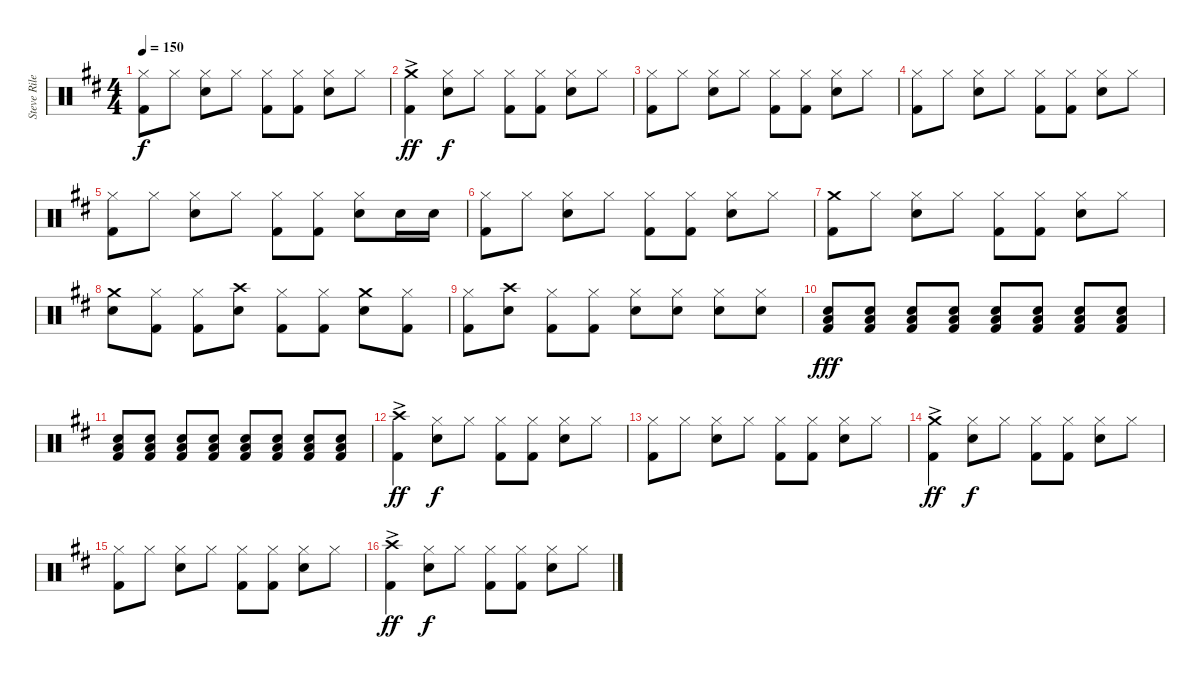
\track ("Steve Riley" "Steve Rile") {instrument percussion}
\staff {score}
\articulation defaults
\ts (4 4)
\tempo 150
\clef neutral
\ks d
("Hi-Hat (closed)" "Kick (hit) 2").8{dy f} "Hi-Hat (closed)".8 ("Hi-Hat (closed)" "Electric Snare (hit)").8 "Hi-Hat (closed)".8 ("Hi-Hat (closed)" "Kick (hit) 2").8 ("Hi-Hat (closed)" "Kick (hit) 2").8 ("Hi-Hat (closed)" "Electric Snare (hit)").8 "Hi-Hat (closed)".8 |
("Crash medium (hit)"{ac} "Kick (hit) 2").4{dy ff} ("Hi-Hat (closed)" "Electric Snare (hit)").8{dy f} "Hi-Hat (closed)".8 ("Hi-Hat (closed)" "Kick (hit) 2").8 ("Hi-Hat (closed)" "Kick (hit) 2").8 ("Hi-Hat (closed)" "Electric Snare (hit)").8 "Hi-Hat (closed)".8 |
("Hi-Hat (closed)" "Kick (hit) 2").8 "Hi-Hat (closed)".8 ("Hi-Hat (closed)" "Electric Snare (hit)").8 "Hi-Hat (closed)".8 ("Hi-Hat (closed)" "Kick (hit) 2").8 ("Hi-Hat (closed)" "Kick (hit) 2").8 ("Hi-Hat (closed)" "Electric Snare (hit)").8 "Hi-Hat (closed)".8 |
("Hi-Hat (closed)" "Kick (hit) 2").8 "Hi-Hat (closed)".8 ("Hi-Hat (closed)" "Electric Snare (hit)").8 "Hi-Hat (closed)".8 ("Hi-Hat (closed)" "Kick (hit) 2").8 ("Hi-Hat (closed)" "Kick (hit) 2").8 ("Hi-Hat (closed)" "Electric Snare (hit)").8 "Hi-Hat (closed)".8 |
("Hi-Hat (closed)" "Kick (hit) 2").8 "Hi-Hat (closed)".8 ("Hi-Hat (closed)" "Electric Snare (hit)").8 "Hi-Hat (closed)".8 ("Hi-Hat (closed)" "Kick (hit) 2").8 ("Hi-Hat (closed)" "Kick (hit) 2").8 ("Hi-Hat (closed)" "Electric Snare (hit)").8 "Electric Snare (hit)".16 "Electric Snare (hit)".16 |
("Hi-Hat (closed)" "Kick (hit) 2").8 "Hi-Hat (closed)".8 ("Hi-Hat (closed)" "Electric Snare (hit)").8 "Hi-Hat (closed)".8 ("Hi-Hat (closed)" "Kick (hit) 2").8 ("Hi-Hat (closed)" "Kick (hit) 2").8 ("Hi-Hat (closed)" "Electric Snare (hit)").8 "Hi-Hat (closed)".8 |
("Crash medium (hit)" "Kick (hit) 2").8 "Hi-Hat (closed)".8 ("Hi-Hat (closed)" "Electric Snare (hit)").8 "Hi-Hat (closed)".8 ("Hi-Hat (closed)" "Kick (hit) 2").8 ("Hi-Hat (closed)" "Kick (hit) 2").8 ("Hi-Hat (closed)" "Electric Snare (hit)").8 "Hi-Hat (closed)".8 |
("Crash medium (hit)" "Electric Snare (hit)").8 ("Hi-Hat (closed)" "Kick (hit) 2").8 ("Hi-Hat (closed)" "Kick (hit) 2").8 ("Crash high (hit)" "Electric Snare (hit)").8 ("Hi-Hat (closed)" "Kick (hit) 2").8 ("Hi-Hat (closed)" "Kick (hit) 2").8 ("Crash medium (hit)" "Electric Snare (hit)").8 ("Hi-Hat (closed)" "Kick (hit) 2").8 |
("Hi-Hat (closed)" "Kick (hit) 2").8 ("Crash high (hit)" "Electric Snare (hit)").8 ("Hi-Hat (closed)" "Kick (hit) 2").8 ("Hi-Hat (closed)" "Kick (hit) 2").8 ("Hi-Hat (closed)" "Electric Snare (hit)").8 ("Hi-Hat (closed)" "Electric Snare (hit)").8 ("Hi-Hat (closed)" "Electric Snare (hit)").8 ("Hi-Hat (closed)" "Electric Snare (hit)").8 |
("Electric Snare (hit)" "Low Tom (hit)" "Kick (hit) 2").8{dy fff} ("Electric Snare (hit)" "Low Tom (hit)" "Kick (hit) 2").8 ("Electric Snare (hit)" "Low Tom (hit)" "Kick (hit) 2").8 ("Electric Snare (hit)" "Low Tom (hit)" "Kick (hit) 2").8 ("Electric Snare (hit)" "Low Tom (hit)" "Kick (hit) 2").8 ("Electric Snare (hit)" "Low Tom (hit)" "Kick (hit) 2").8 ("Electric Snare (hit)" "Low Tom (hit)" "Kick (hit) 2").8 ("Electric Snare (hit)" "Low Tom (hit)" "Kick (hit) 2").8 |
("Electric Snare (hit)" "Low Tom (hit)" "Kick (hit) 2").8 ("Electric Snare (hit)" "Low Tom (hit)" "Kick (hit) 2").8 ("Electric Snare (hit)" "Low Tom (hit)" "Kick (hit) 2").8 ("Electric Snare (hit)" "Low Tom (hit)" "Kick (hit) 2").8 ("Electric Snare (hit)" "Low Tom (hit)" "Kick (hit) 2").8 ("Electric Snare (hit)" "Low Tom (hit)" "Kick (hit) 2").8 ("Electric Snare (hit)" "Low Tom (hit)" "Kick (hit) 2").8 ("Electric Snare (hit)" "Low Tom (hit)" "Kick (hit) 2").8 |
("Crash high (hit)"{ac} "Kick (hit) 2").4{dy ff} ("Hi-Hat (closed)" "Electric Snare (hit)").8{dy f} "Hi-Hat (closed)".8 ("Hi-Hat (closed)" "Kick (hit) 2").8 ("Hi-Hat (closed)" "Kick (hit) 2").8 ("Hi-Hat (closed)" "Electric Snare (hit)").8 "Hi-Hat (closed)".8 |
("Hi-Hat (closed)" "Kick (hit) 2").8 "Hi-Hat (closed)".8 ("Hi-Hat (closed)" "Electric Snare (hit)").8 "Hi-Hat (closed)".8 ("Hi-Hat (closed)" "Kick (hit) 2").8 ("Hi-Hat (closed)" "Kick (hit) 2").8 ("Hi-Hat (closed)" "Electric Snare (hit)").8 "Hi-Hat (closed)".8 |
("Crash medium (hit)"{ac} "Kick (hit) 2").4{dy ff} ("Hi-Hat (closed)" "Electric Snare (hit)").8{dy f} "Hi-Hat (closed)".8 ("Hi-Hat (closed)" "Kick (hit) 2").8 ("Hi-Hat (closed)" "Kick (hit) 2").8 ("Hi-Hat (closed)" "Electric Snare (hit)").8 "Hi-Hat (closed)".8 |
("Hi-Hat (closed)" "Kick (hit) 2").8 "Hi-Hat (closed)".8 ("Hi-Hat (closed)" "Electric Snare (hit)").8 "Hi-Hat (closed)".8 ("Hi-Hat (closed)" "Kick (hit) 2").8 ("Hi-Hat (closed)" "Kick (hit) 2").8 ("Hi-Hat (closed)" "Electric Snare (hit)").8 "Hi-Hat (closed)".8 |
("Crash high (hit)"{ac} "Kick (hit) 2").4{dy ff} ("Hi-Hat (closed)" "Electric Snare (hit)").8{dy f} "Hi-Hat (closed)".8 ("Hi-Hat (closed)" "Kick (hit) 2").8 ("Hi-Hat (closed)" "Kick (hit) 2").8 ("Hi-Hat (closed)" "Electric Snare (hit)").8 "Hi-Hat (closed)".8
